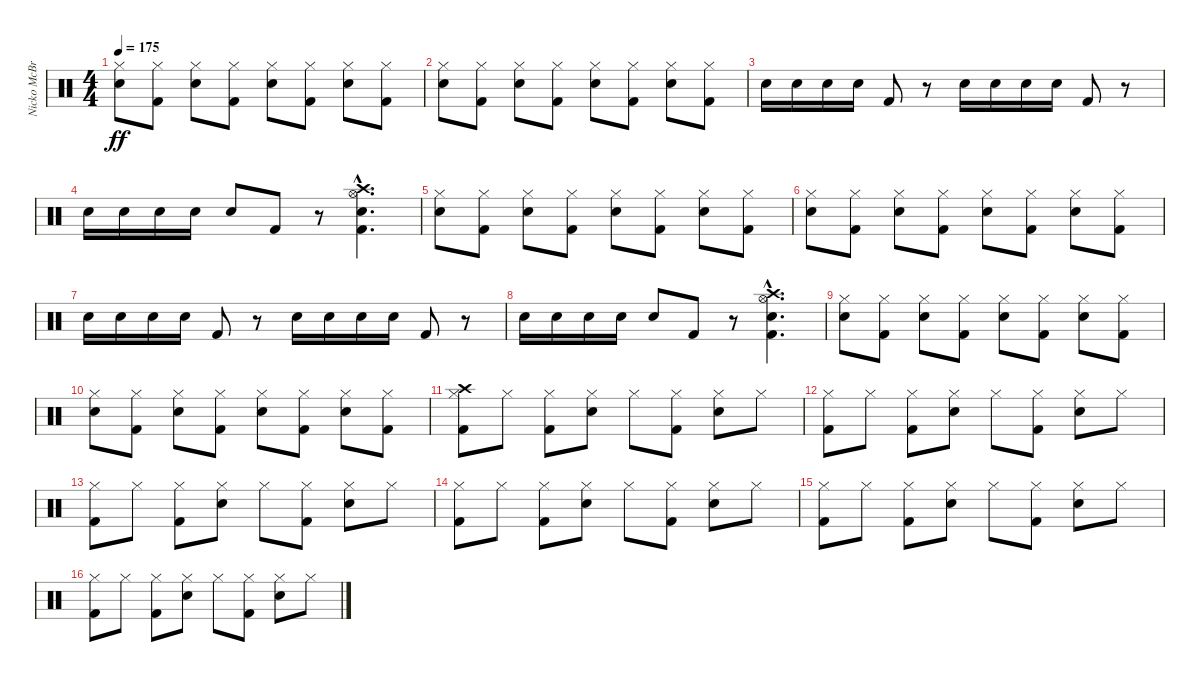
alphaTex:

\track ("Nicko McBrain" "Nicko McBr") {instrument percussion}
\staff {score}
\articulation defaults
\ts (4 4)
\tempo 175
\clef neutral
\ks c
("Snare (hit) 2" "Hi-Hat (closed)").8{dy ff} ("Kick (hit) 2" "Hi-Hat (closed)").8 ("Snare (hit) 2" "Hi-Hat (closed)").8 ("Kick (hit) 2" "Hi-Hat (closed)").8 ("Snare (hit) 2" "Hi-Hat (closed)").8 ("Kick (hit) 2" "Hi-Hat (closed)").8 ("Snare (hit) 2" "Hi-Hat (closed)").8 ("Kick (hit) 2" "Hi-Hat (closed)").8 |
("Snare (hit) 2" "Hi-Hat (closed)").8 ("Kick (hit) 2" "Hi-Hat (closed)").8 ("Snare (hit) 2" "Hi-Hat (closed)").8 ("Kick (hit) 2" "Hi-Hat (closed)").8 ("Snare (hit) 2" "Hi-Hat (closed)").8 ("Kick (hit) 2" "Hi-Hat (closed)").8 ("Snare (hit) 2" "Hi-Hat (closed)").8 ("Kick (hit) 2" "Hi-Hat (closed)").8 |
"Snare (hit) 2".16 "Snare (hit) 2".16 "Snare (hit) 2".16 "Snare (hit) 2".16 "Kick (hit) 2".8 r.8 "Snare (hit) 2".16 "Snare (hit) 2".16 "Snare (hit) 2".16 "Snare (hit) 2".16 "Kick (hit) 2".8 r.8 |
"Snare (hit) 2".16 "Snare (hit) 2".16 "Snare (hit) 2".16 "Snare (hit) 2".16 "Snare (hit) 2".8 "Kick (hit) 2".8 r.8 ("Kick (hit) 2"{hac} "Snare (hit) 2"{hac} "Hi-Hat (open)"{hac} "Crash high (hit)"{hac}).4{d} |
("Snare (hit) 2" "Hi-Hat (closed)").8 ("Kick (hit) 2" "Hi-Hat (closed)").8 ("Snare (hit) 2" "Hi-Hat (closed)").8 ("Kick (hit) 2" "Hi-Hat (closed)").8 ("Snare (hit) 2" "Hi-Hat (closed)").8 ("Kick (hit) 2" "Hi-Hat (closed)").8 ("Snare (hit) 2" "Hi-Hat (closed)").8 ("Kick (hit) 2" "Hi-Hat (closed)").8 |
("Snare (hit) 2" "Hi-Hat (closed)").8 ("Kick (hit) 2" "Hi-Hat (closed)").8 ("Snare (hit) 2" "Hi-Hat (closed)").8 ("Kick (hit) 2" "Hi-Hat (closed)").8 ("Snare (hit) 2" "Hi-Hat (closed)").8 ("Kick (hit) 2" "Hi-Hat (closed)").8 ("Snare (hit) 2" "Hi-Hat (closed)").8 ("Kick (hit) 2" "Hi-Hat (closed)").8 |
"Snare (hit) 2".16 "Snare (hit) 2".16 "Snare (hit) 2".16 "Snare (hit) 2".16 "Kick (hit) 2".8 r.8 "Snare (hit) 2".16 "Snare (hit) 2".16 "Snare (hit) 2".16 "Snare (hit) 2".16 "Kick (hit) 2".8 r.8 |
"Snare (hit) 2".16 "Snare (hit) 2".16 "Snare (hit) 2".16 "Snare (hit) 2".16 "Snare (hit) 2".8 "Kick (hit) 2".8 r.8 ("Kick (hit) 2"{hac} "Snare (hit) 2"{hac} "Hi-Hat (open)"{hac} "Crash high (hit)"{hac}).4{d} |
("Snare (hit) 2" "Hi-Hat (closed)").8 ("Kick (hit) 2" "Hi-Hat (closed)").8 ("Snare (hit) 2" "Hi-Hat (closed)").8 ("Kick (hit) 2" "Hi-Hat (closed)").8 ("Snare (hit) 2" "Hi-Hat (closed)").8 ("Kick (hit) 2" "Hi-Hat (closed)").8 ("Snare (hit) 2" "Hi-Hat (closed)").8 ("Kick (hit) 2" "Hi-Hat (closed)").8 |
("Snare (hit) 2" "Hi-Hat (closed)").8 ("Kick (hit) 2" "Hi-Hat (closed)").8 ("Snare (hit) 2" "Hi-Hat (closed)").8 ("Kick (hit) 2" "Hi-Hat (closed)").8 ("Snare (hit) 2" "Hi-Hat (closed)").8 ("Kick (hit) 2" "Hi-Hat (closed)").8 ("Snare (hit) 2" "Hi-Hat (closed)").8 ("Kick (hit) 2" "Hi-Hat (closed)").8 |
("Kick (hit) 2" "Hi-Hat (closed)" "Crash high (hit)").8 "Hi-Hat (closed)".8 ("Kick (hit) 2" "Hi-Hat (closed)").8 ("Snare (hit) 2" "Hi-Hat (closed)").8 "Hi-Hat (closed)".8 ("Kick (hit) 2" "Hi-Hat (closed)").8 ("Snare (hit) 2" "Hi-Hat (closed)").8 "Hi-Hat (closed)".8 |
("Kick (hit) 2" "Hi-Hat (closed)").8 "Hi-Hat (closed)".8 ("Kick (hit) 2" "Hi-Hat (closed)").8 ("Snare (hit) 2" "Hi-Hat (closed)").8 "Hi-Hat (closed)".8 ("Kick (hit) 2" "Hi-Hat (closed)").8 ("Snare (hit) 2" "Hi-Hat (closed)").8 "Hi-Hat (closed)".8 |
("Kick (hit) 2" "Hi-Hat (closed)").8 "Hi-Hat (closed)".8 ("Kick (hit) 2" "Hi-Hat (closed)").8 ("Snare (hit) 2" "Hi-Hat (closed)").8 "Hi-Hat (closed)".8 ("Kick (hit) 2" "Hi-Hat (closed)").8 ("Snare (hit) 2" "Hi-Hat (closed)").8 "Hi-Hat (closed)".8 |
("Kick (hit) 2" "Hi-Hat (closed)").8 "Hi-Hat (closed)".8 ("Kick (hit) 2" "Hi-Hat (closed)").8 ("Snare (hit) 2" "Hi-Hat (closed)").8 "Hi-Hat (closed)".8 ("Kick (hit) 2" "Hi-Hat (closed)").8 ("Snare (hit) 2" "Hi-Hat (closed)").8 "Hi-Hat (closed)".8 |
("Kick (hit) 2" "Hi-Hat (closed)").8 "Hi-Hat (closed)".8 ("Kick (hit) 2" "Hi-Hat (closed)").8 ("Snare (hit) 2" "Hi-Hat (closed)").8 "Hi-Hat (closed)".8 ("Kick (hit) 2" "Hi-Hat (closed)").8 ("Snare (hit) 2" "Hi-Hat (closed)").8 "Hi-Hat (closed)".8 |
("Kick (hit) 2" "Hi-Hat (closed)").8 "Hi-Hat (closed)".8 ("Kick (hit) 2" "Hi-Hat (closed)").8 ("Snare (hit) 2" "Hi-Hat (closed)").8 "Hi-Hat (closed)".8 ("Kick (hit) 2" "Hi-Hat (closed)").8 ("Snare (hit) 2" "Hi-Hat (closed)").8 "Hi-Hat (closed)".8
